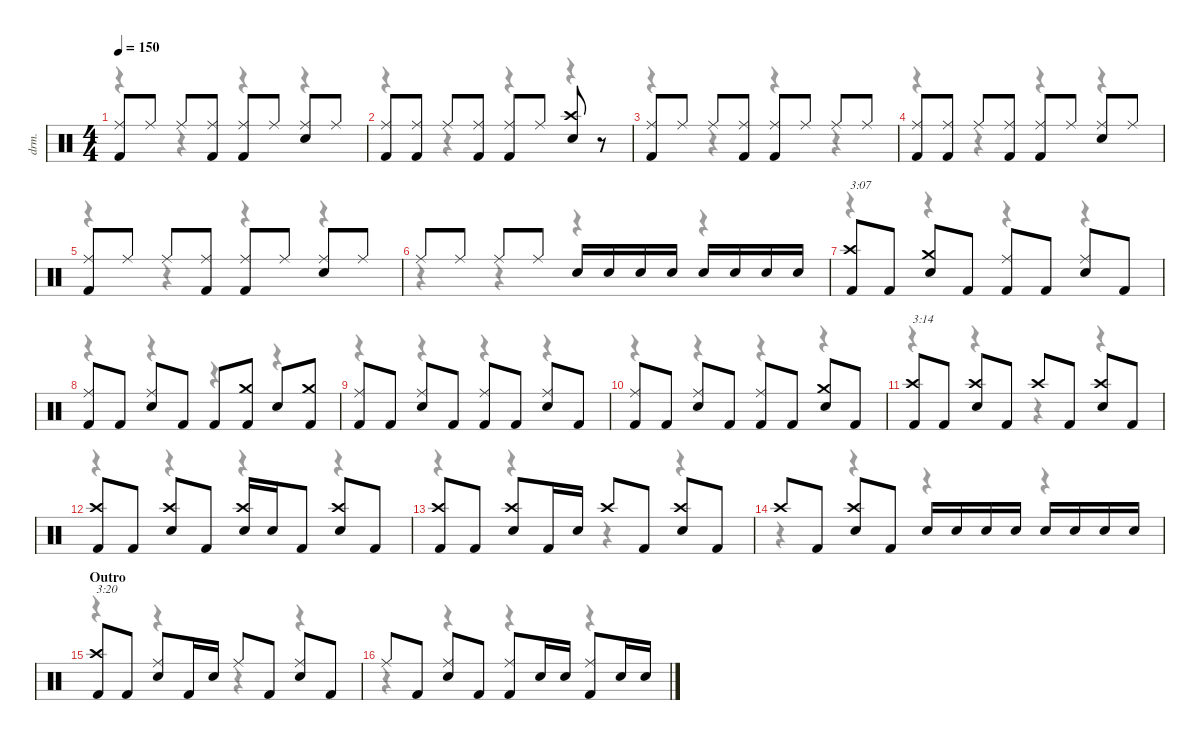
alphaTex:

\defaultSystemsLayout 4
\hideDynamics
\bracketExtendMode nobrackets
\otherSystemsTrackNameOrientation horizontal
\track ("Drums" "drm.") {instrument percussion}
\staff {score}
\articulation defaults
\voice
\ts (4 4)
\tempo 150
\clef neutral
\ks c
("Ride (middle)" "Kick (hit) 2").8{dy f beam Up} "Ride (middle)".8{beam Up} "Ride (middle)".8{beam Up} ("Ride (middle)" "Kick (hit) 2").8{beam Up} ("Ride (middle)" "Kick (hit) 2").8{beam Up} "Ride (middle)".8{beam Up} ("Ride (middle)" "Snare (hit) 2").8{beam Up} "Ride (middle)".8{beam Up} |
("Ride (middle)" "Kick (hit) 2").8{beam Up} ("Ride (middle)" "Kick (hit) 2").8{beam Up} "Ride (middle)".8{beam Up} ("Ride (middle)" "Kick (hit) 2").8{beam Up} ("Ride (middle)" "Kick (hit) 2").8{beam Up} "Ride (middle)".8{beam Up} ("Crash high (hit)" "Snare (hit) 2").8{dy fff beam Up} r.8{beam Up} |
("Ride (middle)" "Kick (hit) 2").8{dy f beam Up} "Ride (middle)".8{beam Up} "Ride (middle)".8{beam Up} ("Ride (middle)" "Kick (hit) 2").8{beam Up} ("Ride (middle)" "Kick (hit) 2").8{beam Up} "Ride (middle)".8{beam Up} "Ride (middle)".8{beam Up} "Ride (middle)".8{beam Up} |
("Ride (middle)" "Kick (hit) 2").8{beam Up} ("Ride (middle)" "Kick (hit) 2").8{beam Up} "Ride (middle)".8{beam Up} ("Ride (middle)" "Kick (hit) 2").8{beam Up} ("Ride (middle)" "Kick (hit) 2").8{beam Up} "Ride (middle)".8{beam Up} ("Ride (middle)" "Snare (hit) 2").8{beam Up} "Ride (middle)".8{beam Up} |
("Ride (middle)" "Kick (hit) 2").8{beam Up} "Ride (middle)".8{beam Up} "Ride (middle)".8{beam Up} ("Ride (middle)" "Kick (hit) 2").8{beam Up} ("Ride (middle)" "Kick (hit) 2").8{beam Up} "Ride (middle)".8{beam Up} ("Ride (middle)" "Snare (hit) 2").8{beam Up} "Ride (middle)".8{beam Up} |
"Ride (middle)".8{beam Up} "Ride (middle)".8{beam Up} "Ride (middle)".8{beam Up} "Ride (middle)".8{beam Up} "Snare (hit) 2".16{beam Up} "Snare (hit) 2".16{dy fff beam Up} "Snare (hit) 2".16{beam Up} "Snare (hit) 2".16{beam Up} "Snare (hit) 2".16{beam Up} "Snare (hit) 2".16{beam Up} "Snare (hit) 2".16{beam Up} "Snare (hit) 2".16{beam Up} |
("Crash high (hit)" "Kick (hit) 2").8{txt "3:07" beam Up} "Kick (hit) 2".8{beam Up} ("Crash medium (hit)" "Snare (hit) 2").8{beam Up} "Kick (hit) 2".8{beam Up} ("Ride (middle)" "Kick (hit) 2").8{dy f beam Up} "Kick (hit) 2".8{dy fff beam Up} ("Ride (middle)" "Snare (hit) 2").8{dy f beam Up} "Kick (hit) 2".8{dy fff beam Up} |
("Ride (middle)" "Kick (hit) 2").8{dy f beam Up} "Kick (hit) 2".8{dy fff beam Up} ("Ride (middle)" "Snare (hit) 2").8{dy f beam Up} "Kick (hit) 2".8{dy fff beam Up} "Kick (hit) 2".8{beam Up} ("Crash medium (hit)" "Kick (hit) 2").8{beam Up} "Snare (hit) 2".8{beam Up} ("Crash medium (hit)" "Kick (hit) 2").8{beam Up} |
("Ride (middle)" "Kick (hit) 2").8{dy f beam Up} "Kick (hit) 2".8{dy fff beam Up} ("Ride (middle)" "Snare (hit) 2").8{dy f beam Up} "Kick (hit) 2".8{dy fff beam Up} ("Ride (middle)" "Kick (hit) 2").8{dy f beam Up} "Kick (hit) 2".8{dy fff beam Up} ("Ride (middle)" "Snare (hit) 2").8{dy f beam Up} "Kick (hit) 2".8{dy fff beam Up} |
("Ride (middle)" "Kick (hit) 2").8{dy f beam Up} "Kick (hit) 2".8{dy fff beam Up} ("Ride (middle)" "Snare (hit) 2").8{dy f beam Up} "Kick (hit) 2".8{dy fff beam Up} ("Ride (middle)" "Kick (hit) 2").8{dy f beam Up} "Kick (hit) 2".8{dy fff beam Up} ("Crash medium (hit)" "Snare (hit) 2").8{beam Up} "Kick (hit) 2".8{beam Up} |
("Crash high (hit)" "Kick (hit) 2").8{txt "3:14" beam Up} "Kick (hit) 2".8{beam Up} ("Crash high (hit)" "Snare (hit) 2").8{dy f beam Up} "Kick (hit) 2".8{dy fff beam Up} "Crash high (hit)".8{beam Up} "Kick (hit) 2".8{beam Up} ("Crash high (hit)" "Snare (hit) 2").8{dy f beam Up} "Kick (hit) 2".8{dy fff beam Up} |
("Crash high (hit)" "Kick (hit) 2").8{dy f beam Up} "Kick (hit) 2".8{dy fff beam Up} ("Crash high (hit)" "Snare (hit) 2").8{dy f beam Up} "Kick (hit) 2".8{dy fff beam Up} ("Crash high (hit)" "Snare (hit) 2").16{dy f beam Up} "Snare (hit) 2".16{dy fff beam Up} "Kick (hit) 2".8{beam Up} ("Crash high (hit)" "Snare (hit) 2").8{dy f beam Up} "Kick (hit) 2".8{dy fff beam Up} |
("Crash high (hit)" "Kick (hit) 2").8{dy f beam Up} "Kick (hit) 2".8{dy fff beam Up} ("Crash high (hit)" "Snare (hit) 2").8{dy f beam Up} "Kick (hit) 2".16{dy fff beam Up} "Snare (hit) 2".16{beam Up} "Crash high (hit)".8{dy f beam Up} "Kick (hit) 2".8{dy fff beam Up} ("Crash high (hit)" "Snare (hit) 2").8{dy f beam Up} "Kick (hit) 2".8{dy fff beam Up} |
"Crash high (hit)".8{dy f beam Up} "Kick (hit) 2".8{dy fff beam Up} ("Crash high (hit)" "Snare (hit) 2").8{dy f beam Up} "Kick (hit) 2".8{dy fff beam Up} "Snare (hit) 2".16{beam Up} "Snare (hit) 2".16{beam Up} "Snare (hit) 2".16{beam Up} "Snare (hit) 2".16{beam Up} "Snare (hit) 2".16{beam Up} "Snare (hit) 2".16{beam Up} "Snare (hit) 2".16{beam Up} "Snare (hit) 2".16{beam Up} |
\section ("" "Outro")
("Crash high (hit)" "Kick (hit) 2").8{txt "3:20" dy f beam Up} "Kick (hit) 2".8{dy fff beam Up} ("Ride (middle)" "Snare (hit) 2").8{dy f beam Up} "Kick (hit) 2".16{dy fff beam Up} "Snare (hit) 2".16{beam Up} "Ride (middle)".8{dy f beam Up} "Kick (hit) 2".8{dy fff beam Up} ("Ride (middle)" "Snare (hit) 2").8{dy f beam Up} "Kick (hit) 2".8{dy fff beam Up} |
"Ride (middle)".8{dy f beam Up} "Kick (hit) 2".8{dy fff beam Up} ("Ride (middle)" "Snare (hit) 2").8{dy f beam Up} "Kick (hit) 2".8{dy fff beam Up} ("Ride (middle)" "Kick (hit) 2").8{dy f beam Up} "Snare (hit) 2".16{dy fff beam Up} "Snare (hit) 2".16{beam Up} ("Ride (middle)" "Kick (hit) 2").8{dy f beam Up} "Snare (hit) 2".16{dy fff beam Up} "Snare (hit) 2".16{beam Up}
\voice
\clef neutral
\ottava regular
\simile none
\ks c
r.4{dy mf beam Down} r.4{beam Down} r.4{beam Down} r.4{beam Down} |
r.4{beam Down} r.4{beam Down} r.4{beam Down} r.4{beam Down} |
r.4{beam Down} r.4{beam Down} r.4{beam Down} r.4{beam Down} |
r.4{beam Down} r.4{beam Down} r.4{beam Down} r.4{beam Down} |
r.4{beam Down} r.4{beam Down} r.4{beam Down} r.4{beam Down} |
r.4{beam Down} r.4{beam Down} r.4{beam Down} r.4{beam Down} |
r.4{beam Down} r.4{beam Down} r.4{beam Down} r.4{beam Down} |
r.4{beam Down} r.4{beam Down} r.4{beam Down} r.4{beam Down} |
r.4{beam Down} r.4{beam Down} r.4{beam Down} r.4{beam Down} |
r.4{beam Down} r.4{beam Down} r.4{beam Down} r.4{beam Down} |
r.4{beam Down} r.4{beam Down} r.4{beam Down} r.4{beam Down} |
r.4{beam Down} r.4{beam Down} r.4{beam Down} r.4{beam Down} |
r.4{beam Down} r.4{beam Down} r.4{beam Down} r.4{beam Down} |
r.4{beam Down} r.4{beam Down} r.4{beam Down} r.4{beam Down} |
r.4{beam Down} r.4{beam Down} r.4{beam Down} r.4{beam Down} |
r.4{beam Down} r.4{beam Down} r.4{beam Down} r.4{beam Down}
